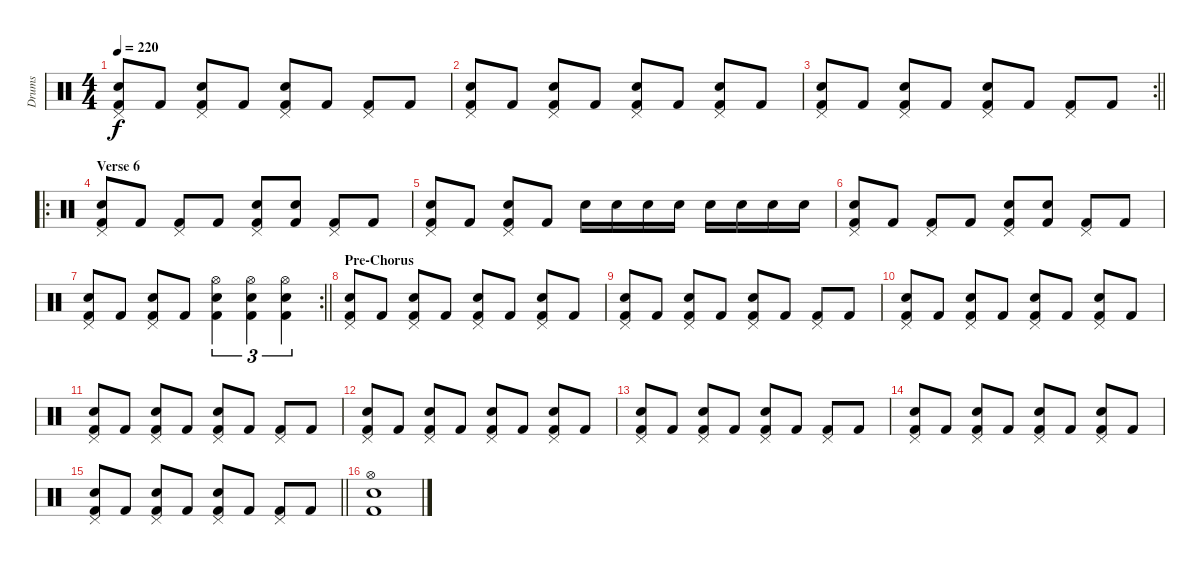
\track ("Drums" "Drums") {instrument percussion}
\staff {score}
\articulation defaults
\ts (4 4)
\tempo 220
\clef neutral
\ks c
("Pedal Hi-Hat (hit)" "Snare (hit) 2" "Kick (hit) 2").8{dy f} "Kick (hit) 2".8 ("Pedal Hi-Hat (hit)" "Snare (hit) 2" "Kick (hit) 2").8 "Kick (hit) 2".8 ("Pedal Hi-Hat (hit)" "Snare (hit) 2" "Kick (hit) 2").8 "Kick (hit) 2".8 ("Pedal Hi-Hat (hit)" "Kick (hit) 2").8 "Kick (hit) 2".8 |
("Pedal Hi-Hat (hit)" "Snare (hit) 2" "Kick (hit) 2").8 "Kick (hit) 2".8 ("Pedal Hi-Hat (hit)" "Snare (hit) 2" "Kick (hit) 2").8 "Kick (hit) 2".8 ("Pedal Hi-Hat (hit)" "Snare (hit) 2" "Kick (hit) 2").8 "Kick (hit) 2".8 ("Pedal Hi-Hat (hit)" "Snare (hit) 2" "Kick (hit) 2").8 "Kick (hit) 2".8 |
\rc 2
\barLineRight lightlight
("Pedal Hi-Hat (hit)" "Snare (hit) 2" "Kick (hit) 2").8 "Kick (hit) 2".8 ("Pedal Hi-Hat (hit)" "Snare (hit) 2" "Kick (hit) 2").8 "Kick (hit) 2".8 ("Pedal Hi-Hat (hit)" "Snare (hit) 2" "Kick (hit) 2").8 "Kick (hit) 2".8 ("Pedal Hi-Hat (hit)" "Kick (hit) 2").8 "Kick (hit) 2".8 |
\ro
\section ("" "Verse 6")
("Pedal Hi-Hat (hit)" "Snare (hit) 2" "Kick (hit) 2").8 "Kick (hit) 2".8 ("Pedal Hi-Hat (hit)" "Kick (hit) 2").8 "Kick (hit) 2".8 ("Pedal Hi-Hat (hit)" "Snare (hit) 2" "Kick (hit) 2").8 ("Snare (hit) 2" "Kick (hit) 2").8 ("Pedal Hi-Hat (hit)" "Kick (hit) 2").8 "Kick (hit) 2".8 |
("Pedal Hi-Hat (hit)" "Snare (hit) 2" "Kick (hit) 2").8 "Kick (hit) 2".8 ("Pedal Hi-Hat (hit)" "Snare (hit) 2" "Kick (hit) 2").8 "Kick (hit) 2".8 "Snare (hit) 2".16 "Snare (hit) 2".16 "Snare (hit) 2".16 "Snare (hit) 2".16 "Snare (hit) 2".16 "Snare (hit) 2".16 "Snare (hit) 2".16 "Snare (hit) 2".16 |
("Pedal Hi-Hat (hit)" "Snare (hit) 2" "Kick (hit) 2").8 "Kick (hit) 2".8 ("Pedal Hi-Hat (hit)" "Kick (hit) 2").8 "Kick (hit) 2".8 ("Pedal Hi-Hat (hit)" "Snare (hit) 2" "Kick (hit) 2").8 ("Snare (hit) 2" "Kick (hit) 2").8 ("Pedal Hi-Hat (hit)" "Kick (hit) 2").8 "Kick (hit) 2".8 |
\rc 2
\barLineRight lightlight
("Pedal Hi-Hat (hit)" "Snare (hit) 2" "Kick (hit) 2").8 "Kick (hit) 2".8 ("Pedal Hi-Hat (hit)" "Snare (hit) 2" "Kick (hit) 2").8 "Kick (hit) 2".8 ("Hi-Hat (open)" "Snare (hit) 2" "Kick (hit) 2").4{tu (3 2)} ("Hi-Hat (open)" "Snare (hit) 2" "Kick (hit) 2").4{tu (3 2)} ("Hi-Hat (open)" "Snare (hit) 2" "Kick (hit) 2").4{tu (3 2)} |
\section ("" "Pre-Chorus")
("Pedal Hi-Hat (hit)" "Snare (hit) 2" "Kick (hit) 2").8 "Kick (hit) 2".8 ("Pedal Hi-Hat (hit)" "Snare (hit) 2" "Kick (hit) 2").8 "Kick (hit) 2".8 ("Pedal Hi-Hat (hit)" "Snare (hit) 2" "Kick (hit) 2").8 "Kick (hit) 2".8 ("Pedal Hi-Hat (hit)" "Snare (hit) 2" "Kick (hit) 2").8 "Kick (hit) 2".8 |
("Pedal Hi-Hat (hit)" "Snare (hit) 2" "Kick (hit) 2").8 "Kick (hit) 2".8 ("Pedal Hi-Hat (hit)" "Snare (hit) 2" "Kick (hit) 2").8 "Kick (hit) 2".8 ("Pedal Hi-Hat (hit)" "Snare (hit) 2" "Kick (hit) 2").8 "Kick (hit) 2".8 ("Pedal Hi-Hat (hit)" "Kick (hit) 2").8 "Kick (hit) 2".8 |
("Pedal Hi-Hat (hit)" "Snare (hit) 2" "Kick (hit) 2").8 "Kick (hit) 2".8 ("Pedal Hi-Hat (hit)" "Snare (hit) 2" "Kick (hit) 2").8 "Kick (hit) 2".8 ("Pedal Hi-Hat (hit)" "Snare (hit) 2" "Kick (hit) 2").8 "Kick (hit) 2".8 ("Pedal Hi-Hat (hit)" "Snare (hit) 2" "Kick (hit) 2").8 "Kick (hit) 2".8 |
("Pedal Hi-Hat (hit)" "Snare (hit) 2" "Kick (hit) 2").8 "Kick (hit) 2".8 ("Pedal Hi-Hat (hit)" "Snare (hit) 2" "Kick (hit) 2").8 "Kick (hit) 2".8 ("Pedal Hi-Hat (hit)" "Snare (hit) 2" "Kick (hit) 2").8 "Kick (hit) 2".8 ("Pedal Hi-Hat (hit)" "Kick (hit) 2").8 "Kick (hit) 2".8 |
("Pedal Hi-Hat (hit)" "Snare (hit) 2" "Kick (hit) 2").8 "Kick (hit) 2".8 ("Pedal Hi-Hat (hit)" "Snare (hit) 2" "Kick (hit) 2").8 "Kick (hit) 2".8 ("Pedal Hi-Hat (hit)" "Snare (hit) 2" "Kick (hit) 2").8 "Kick (hit) 2".8 ("Pedal Hi-Hat (hit)" "Snare (hit) 2" "Kick (hit) 2").8 "Kick (hit) 2".8 |
("Pedal Hi-Hat (hit)" "Snare (hit) 2" "Kick (hit) 2").8 "Kick (hit) 2".8 ("Pedal Hi-Hat (hit)" "Snare (hit) 2" "Kick (hit) 2").8 "Kick (hit) 2".8 ("Pedal Hi-Hat (hit)" "Snare (hit) 2" "Kick (hit) 2").8 "Kick (hit) 2".8 ("Pedal Hi-Hat (hit)" "Kick (hit) 2").8 "Kick (hit) 2".8 |
("Pedal Hi-Hat (hit)" "Snare (hit) 2" "Kick (hit) 2").8 "Kick (hit) 2".8 ("Pedal Hi-Hat (hit)" "Snare (hit) 2" "Kick (hit) 2").8 "Kick (hit) 2".8 ("Pedal Hi-Hat (hit)" "Snare (hit) 2" "Kick (hit) 2").8 "Kick (hit) 2".8 ("Pedal Hi-Hat (hit)" "Snare (hit) 2" "Kick (hit) 2").8 "Kick (hit) 2".8 |
\barLineRight lightlight
("Pedal Hi-Hat (hit)" "Snare (hit) 2" "Kick (hit) 2").8 "Kick (hit) 2".8 ("Pedal Hi-Hat (hit)" "Snare (hit) 2" "Kick (hit) 2").8 "Kick (hit) 2".8 ("Pedal Hi-Hat (hit)" "Snare (hit) 2" "Kick (hit) 2").8 "Kick (hit) 2".8 ("Pedal Hi-Hat (hit)" "Kick (hit) 2").8 "Kick (hit) 2".8 |
("Hi-Hat (open)" "Snare (hit) 2" "Kick (hit) 2").1
